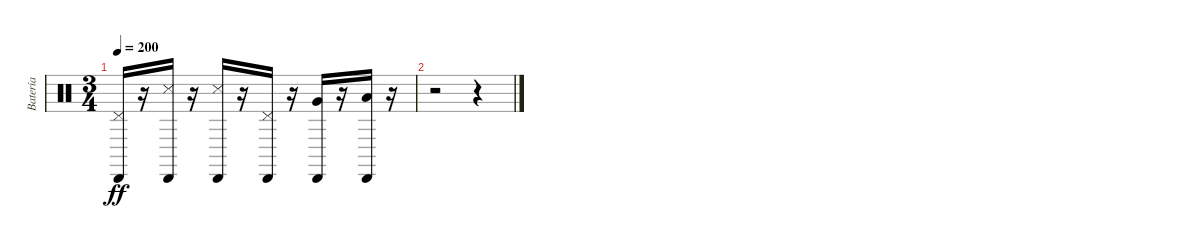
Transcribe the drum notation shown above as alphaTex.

\track ("Batería" "Batería") {instrument percussion}
\staff {score}
\articulation defaults
\ts (3 4)
\tempo 200
\clef neutral
\ks c
("Cabasa (hit)" "Pedal Hi-Hat (hit)").16{dy ff} r.16 ("Cabasa (hit)" "Snare (side stick) 3").16 r.16 ("Cabasa (hit)" "Snare (side stick) 3").16{volume 1} r.16 ("Cabasa (hit)" "Pedal Hi-Hat (hit)").16 r.16 ("Cabasa (hit)" "Very Low Tom (hit)").16 r.16 ("Cabasa (hit)" "Low Floor Tom (hit)").16 r.16 |
r.2 r.4
